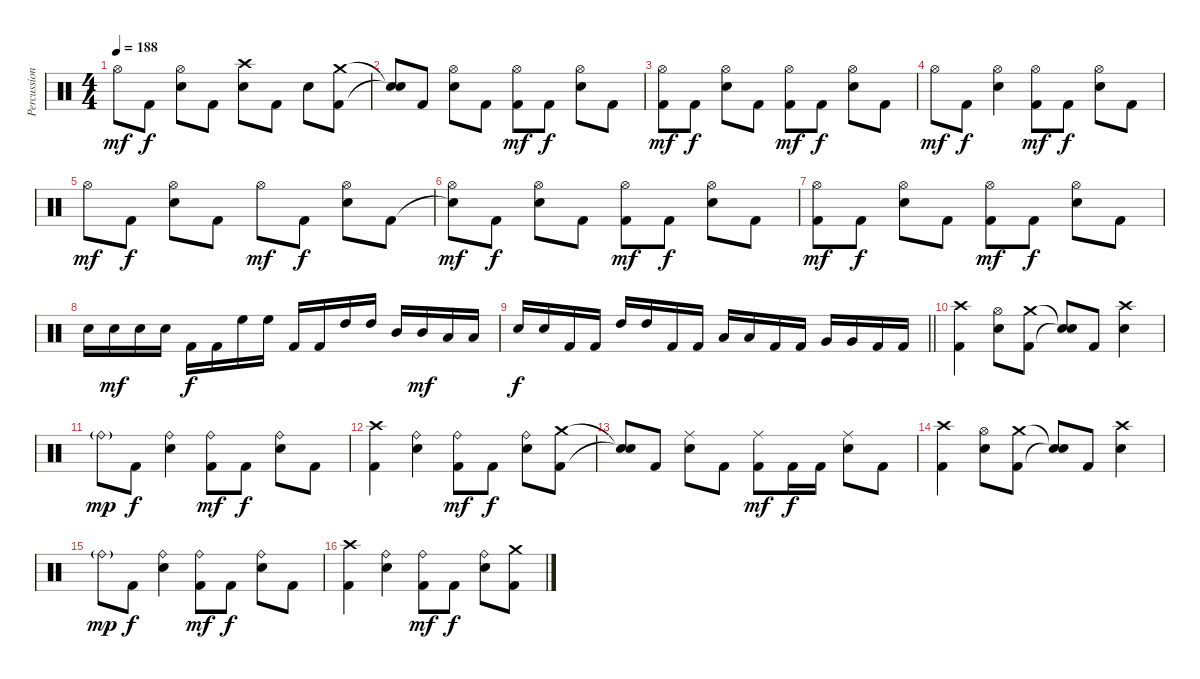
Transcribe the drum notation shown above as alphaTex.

\track ("Percussion" "Percussion") {instrument percussion}
\staff {score}
\articulation defaults
\ts (4 4)
\tempo 188
\clef neutral
\ks c "Hi-Hat (open)".8{dy mf} "Kick (hit) 2".8{dy f}
("Hi-Hat (open)" "Electric Snare (hit)").8 "Kick (hit) 2".8 ("Crash high (hit)" "Electric Snare (hit)").8 "Kick (hit) 2".8 "Electric Snare (hit)".8 ("Crash medium (hit)" "Kick (hit) 2").8 |
("Snare (hit)"{t} "Snare (hit)"{t}).8 "Kick (hit) 2".8 ("Hi-Hat (open)" "Electric Snare (hit)").8 "Kick (hit) 2".8 ("Hi-Hat (open)" "Kick (hit) 2").8{dy mf} "Kick (hit) 2".8{dy f} ("Hi-Hat (open)" "Electric Snare (hit)").8 "Kick (hit) 2".8 |
("Hi-Hat (open)" "Kick (hit) 2").8{dy mf} "Kick (hit) 2".8{dy f} ("Hi-Hat (open)" "Electric Snare (hit)").8 "Kick (hit) 2".8 ("Hi-Hat (open)" "Kick (hit) 2").8{dy mf} "Kick (hit) 2".8{dy f} ("Hi-Hat (open)" "Electric Snare (hit)").8 "Kick (hit) 2".8 |
"Hi-Hat (open)".8{dy mf} "Kick (hit) 2".8{dy f} ("Hi-Hat (open)" "Electric Snare (hit)").4 ("Hi-Hat (open)" "Kick (hit) 2").8{dy mf} "Kick (hit) 2".8{dy f} ("Hi-Hat (open)" "Electric Snare (hit)").8 "Kick (hit) 2".8 |
"Hi-Hat (open)".8{dy mf} "Kick (hit) 2".8{dy f} ("Hi-Hat (open)" "Electric Snare (hit)").8 "Kick (hit) 2".8 "Hi-Hat (open)".8{dy mf} "Kick (hit) 2".8{dy f} ("Hi-Hat (open)" "Electric Snare (hit)").8 "Kick (hit) 2".8 |
("Snare (hit)"{t} "Hi-Hat (open)").8{dy mf} "Kick (hit) 2".8{dy f} ("Hi-Hat (open)" "Electric Snare (hit)").8 "Kick (hit) 2".8 ("Hi-Hat (open)" "Kick (hit) 2").8{dy mf} "Kick (hit) 2".8{dy f} ("Hi-Hat (open)" "Electric Snare (hit)").8 "Kick (hit) 2".8 |
("Hi-Hat (open)" "Kick (hit) 2").8{dy mf} "Kick (hit) 2".8{dy f} ("Hi-Hat (open)" "Electric Snare (hit)").8 "Kick (hit) 2".8 ("Hi-Hat (open)" "Kick (hit) 2").8{dy mf} "Kick (hit) 2".8{dy f} ("Hi-Hat (open)" "Electric Snare (hit)").8 "Kick (hit) 2".8 |
"Electric Snare (hit)".16 "Electric Snare (hit)".16{dy mf} "Electric Snare (hit)".16 "Electric Snare (hit)".16 "Kick (hit) 2".16{dy f} "Kick (hit) 2".16 "High Floor Tom (hit)".16 "High Floor Tom (hit)".16 "Kick (hit) 2".16 "Kick (hit) 2".16 "High Tom (hit)".16 "High Tom (hit)".16 "Mid Tom (hit)".16 "Mid Tom (hit)".16{dy mf} "Low Tom (hit)".16 "Low Tom (hit)".16 |
\barLineRight lightlight "Electric Snare (hit)".16{dy f} "Electric Snare (hit)".16 "Kick (hit) 2".16 "Kick (hit) 2".16 "High Tom (hit)".16 "High Tom (hit)".16 "Kick (hit) 2".16 "Kick (hit) 2".16 "Low Tom (hit)".16 "Low Tom (hit)".16 "Kick (hit) 2".16 "Kick (hit) 2".16 "Very Low Tom (hit)".16 "Very Low Tom (hit)".16 "Kick (hit) 2".16 "Kick (hit) 2".16
|
("Crash high (hit)" "Kick (hit) 2").4 ("Hi-Hat (open)" "Electric Snare (hit)").8 ("Crash medium (hit)" "Kick (hit) 2").8 ("Snare (hit)"{t} "Snare (hit)"{t}).8 "Kick (hit) 2".8 ("Crash high (hit)" "Electric Snare (hit)").4 |
"Ride (bell)"{g}.8{dy mp} "Kick (hit) 2".8{dy f} ("Ride (bell)" "Electric Snare (hit)").4 ("Ride (bell)" "Kick (hit) 2").8{dy mf} "Kick (hit) 2".8{dy f} ("Ride (bell)" "Electric Snare (hit)").8 "Kick (hit) 2".8 |
("Crash high (hit)" "Kick (hit) 2").4 ("Ride (bell)" "Electric Snare (hit)").4 ("Ride (bell)" "Kick (hit) 2").8{dy mf} "Kick (hit) 2".8{dy f} ("Ride (bell)" "Electric Snare (hit)").8 ("Crash medium (hit)" "Kick (hit) 2").8 |
("Snare (hit)"{t} "Snare (hit)"{t}).8 "Kick (hit) 2".8 ("Ride (middle)" "Electric Snare (hit)").8 "Kick (hit) 2".8 ("Ride (middle)" "Kick (hit) 2").8{dy mf} "Kick (hit) 2".16{dy f} "Kick (hit) 2".16 ("Ride (middle)" "Electric Snare (hit)").8 "Kick (hit) 2".8 |
("Crash high (hit)" "Kick (hit) 2").4 ("Hi-Hat (open)" "Electric Snare (hit)").8 ("Crash medium (hit)" "Kick (hit) 2").8 ("Snare (hit)"{t} "Snare (hit)"{t}).8 "Kick (hit) 2".8 ("Crash high (hit)" "Electric Snare (hit)").4 |
"Ride (bell)"{g}.8{dy mp} "Kick (hit) 2".8{dy f} ("Ride (bell)" "Electric Snare (hit)").4 ("Ride (bell)" "Kick (hit) 2").8{dy mf} "Kick (hit) 2".8{dy f} ("Ride (bell)" "Electric Snare (hit)").8 "Kick (hit) 2".8 |
("Crash high (hit)" "Kick (hit) 2").4 ("Ride (bell)" "Electric Snare (hit)").4 ("Ride (bell)" "Kick (hit) 2").8{dy mf} "Kick (hit) 2".8{dy f} ("Ride (bell)" "Electric Snare (hit)").8 ("Crash medium (hit)" "Kick (hit) 2").8
